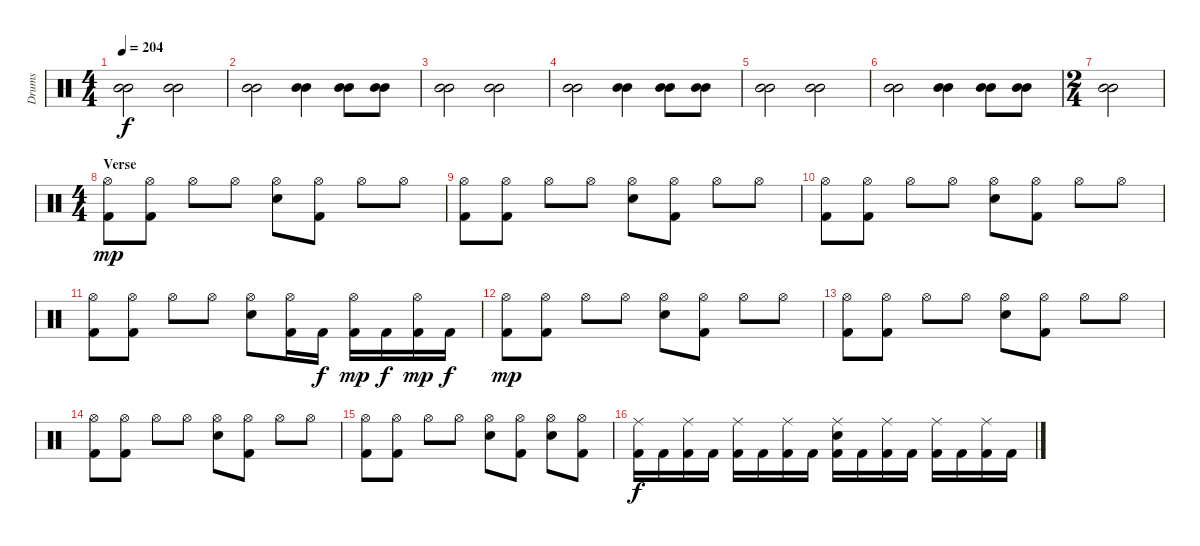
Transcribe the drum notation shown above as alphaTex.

\track ("Drums" "Drums") {instrument percussion}
\staff {score}
\articulation defaults
\ts (4 4)
\tempo 204
\clef neutral
\ks c
("Mid Tom (hit)" "Mid Tom (hit)").2{dy f} ("Mid Tom (hit)" "Mid Tom (hit)").2 |
("Mid Tom (hit)" "Mid Tom (hit)").2 ("Mid Tom (hit)" "Mid Tom (hit)").4 ("Mid Tom (hit)" "Mid Tom (hit)").8 ("Mid Tom (hit)" "Mid Tom (hit)").8 |
("Mid Tom (hit)" "Mid Tom (hit)").2 ("Mid Tom (hit)" "Mid Tom (hit)").2 |
("Mid Tom (hit)" "Mid Tom (hit)").2 ("Mid Tom (hit)" "Mid Tom (hit)").4 ("Mid Tom (hit)" "Mid Tom (hit)").8 ("Mid Tom (hit)" "Mid Tom (hit)").8 |
("Mid Tom (hit)" "Mid Tom (hit)").2 ("Mid Tom (hit)" "Mid Tom (hit)").2 |
("Mid Tom (hit)" "Mid Tom (hit)").2 ("Mid Tom (hit)" "Mid Tom (hit)").4 ("Mid Tom (hit)" "Mid Tom (hit)").8 ("Mid Tom (hit)" "Mid Tom (hit)").8 |
\ts (2 4)
("Mid Tom (hit)" "Mid Tom (hit)").2 |
\ts (4 4)
\section ("" "Verse")
("Hi-Hat (open)" "Kick (hit) 2").8{dy mp} ("Hi-Hat (open)" "Kick (hit) 2").8 "Hi-Hat (open)".8 "Hi-Hat (open)".8 ("Hi-Hat (open)" "Electric Snare (hit)").8 ("Hi-Hat (open)" "Kick (hit) 2").8 "Hi-Hat (open)".8 "Hi-Hat (open)".8 |
("Hi-Hat (open)" "Kick (hit) 2").8 ("Hi-Hat (open)" "Kick (hit) 2").8 "Hi-Hat (open)".8 "Hi-Hat (open)".8 ("Hi-Hat (open)" "Electric Snare (hit)").8 ("Hi-Hat (open)" "Kick (hit) 2").8 "Hi-Hat (open)".8 "Hi-Hat (open)".8 |
("Hi-Hat (open)" "Kick (hit) 2").8 ("Hi-Hat (open)" "Kick (hit) 2").8 "Hi-Hat (open)".8 "Hi-Hat (open)".8 ("Hi-Hat (open)" "Electric Snare (hit)").8 ("Hi-Hat (open)" "Kick (hit) 2").8 "Hi-Hat (open)".8 "Hi-Hat (open)".8 |
("Hi-Hat (open)" "Kick (hit) 2").8 ("Hi-Hat (open)" "Kick (hit) 2").8 "Hi-Hat (open)".8 "Hi-Hat (open)".8 ("Hi-Hat (open)" "Electric Snare (hit)").8 ("Hi-Hat (open)" "Kick (hit) 2").16 "Kick (hit) 2".16{dy f} ("Hi-Hat (open)" "Kick (hit) 2").16{dy mp} "Kick (hit) 2".16{dy f} ("Hi-Hat (open)" "Kick (hit) 2").16{dy mp} "Kick (hit) 2".16{dy f} |
("Hi-Hat (open)" "Kick (hit) 2").8{dy mp} ("Hi-Hat (open)" "Kick (hit) 2").8 "Hi-Hat (open)".8 "Hi-Hat (open)".8 ("Hi-Hat (open)" "Electric Snare (hit)").8 ("Hi-Hat (open)" "Kick (hit) 2").8 "Hi-Hat (open)".8 "Hi-Hat (open)".8 |
("Hi-Hat (open)" "Kick (hit) 2").8 ("Hi-Hat (open)" "Kick (hit) 2").8 "Hi-Hat (open)".8 "Hi-Hat (open)".8 ("Hi-Hat (open)" "Electric Snare (hit)").8 ("Hi-Hat (open)" "Kick (hit) 2").8 "Hi-Hat (open)".8 "Hi-Hat (open)".8 |
("Hi-Hat (open)" "Kick (hit) 2").8 ("Hi-Hat (open)" "Kick (hit) 2").8 "Hi-Hat (open)".8 "Hi-Hat (open)".8 ("Hi-Hat (open)" "Electric Snare (hit)").8 ("Hi-Hat (open)" "Kick (hit) 2").8 "Hi-Hat (open)".8 "Hi-Hat (open)".8 |
("Hi-Hat (open)" "Kick (hit) 2").8 ("Hi-Hat (open)" "Kick (hit) 2").8 "Hi-Hat (open)".8 "Hi-Hat (open)".8 ("Hi-Hat (open)" "Electric Snare (hit)").8 ("Hi-Hat (open)" "Kick (hit) 2").8 ("Hi-Hat (open)" "Electric Snare (hit)").8 ("Hi-Hat (open)" "Kick (hit) 2").8 |
("Ride (middle)" "Kick (hit) 2").16{dy f} "Kick (hit) 2".16 ("Ride (middle)" "Kick (hit) 2").16 "Kick (hit) 2".16 ("Ride (middle)" "Kick (hit) 2").16 "Kick (hit) 2".16 ("Ride (middle)" "Kick (hit) 2").16 "Kick (hit) 2".16 ("Ride (middle)" "Electric Snare (hit)" "Kick (hit) 2").16 "Kick (hit) 2".16 ("Ride (middle)" "Kick (hit) 2").16 "Kick (hit) 2".16 ("Ride (middle)" "Kick (hit) 2").16 "Kick (hit) 2".16 ("Ride (middle)" "Kick (hit) 2").16 "Kick (hit) 2".16
